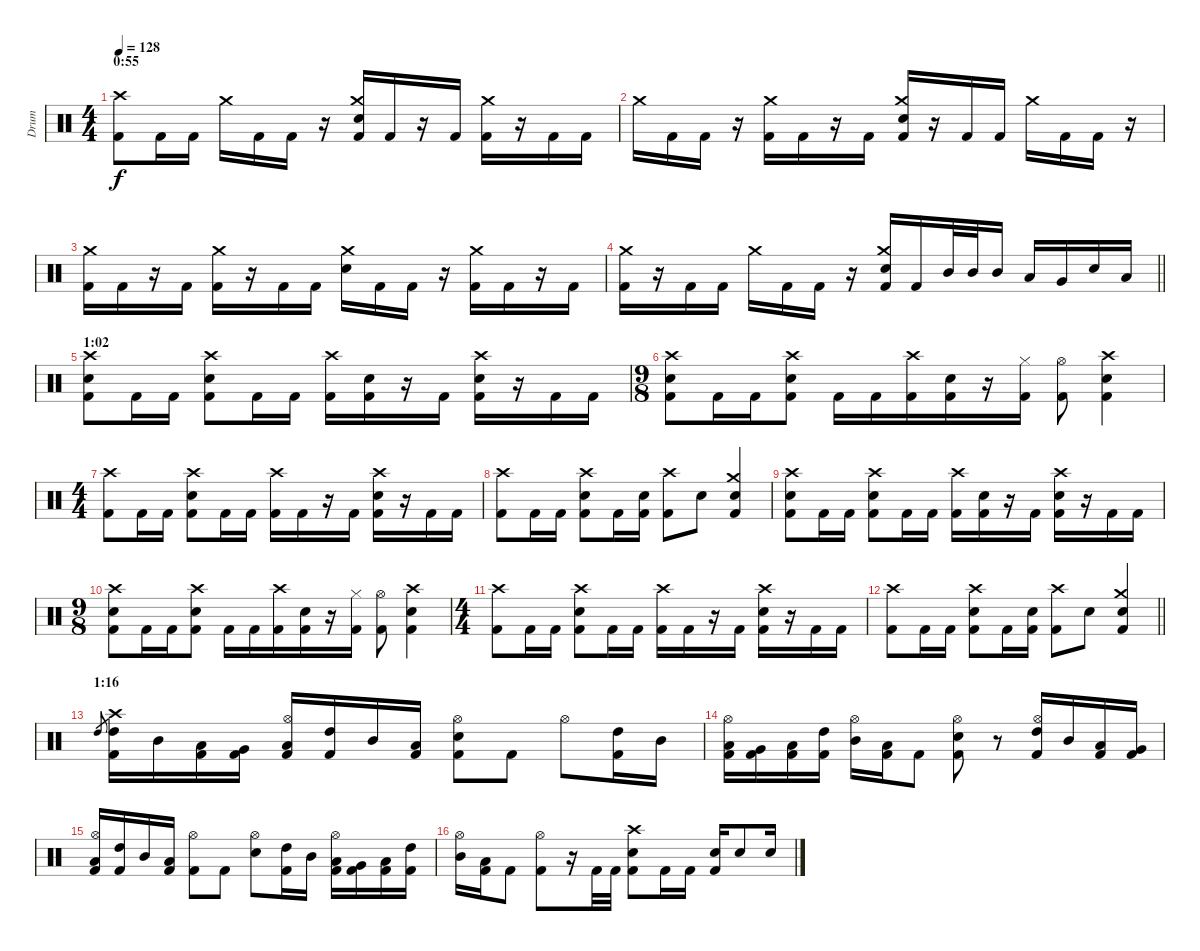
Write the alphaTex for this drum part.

\track ("Drum" "Drum") {instrument percussion}
\staff {score}
\articulation defaults
\ts (4 4)
\section ("" "0:55")
\tempo 128
\clef neutral
\ks c
("Crash high (hit)" "Kick (hit) 2").8{dy f} "Kick (hit) 2".16 "Kick (hit) 2".16 "Crash medium (hit)".16 "Kick (hit) 2".16 "Kick (hit) 2".16 r.16 ("Crash medium (hit)" "Electric Snare (hit)" "Kick (hit) 2").16 "Kick (hit) 2".16 r.16 "Kick (hit) 2".16 ("Crash medium (hit)" "Kick (hit) 2").16 r.16 "Kick (hit) 2".16 "Kick (hit) 2".16 |
"Crash medium (hit)".16 "Kick (hit) 2".16 "Kick (hit) 2".16 r.16 ("Crash medium (hit)" "Kick (hit) 2").16 "Kick (hit) 2".16 r.16 "Kick (hit) 2".16 ("Crash medium (hit)" "Electric Snare (hit)" "Kick (hit) 2").16 r.16 "Kick (hit) 2".16 "Kick (hit) 2".16 "Crash medium (hit)".16 "Kick (hit) 2".16 "Kick (hit) 2".16 r.16 |
("Crash medium (hit)" "Kick (hit) 2").16 "Kick (hit) 2".16 r.16 "Kick (hit) 2".16 ("Crash medium (hit)" "Kick (hit) 2").16 r.16 "Kick (hit) 2".16 "Kick (hit) 2".16 ("Crash medium (hit)" "Electric Snare (hit)").16 "Kick (hit) 2".16 "Kick (hit) 2".16 r.16 ("Crash medium (hit)" "Kick (hit) 2").16 "Kick (hit) 2".16 r.16 "Kick (hit) 2".16 |
\barLineRight lightlight
("Crash medium (hit)" "Kick (hit) 2").16 r.16 "Kick (hit) 2".16 "Kick (hit) 2".16 "Crash medium (hit)".16 "Kick (hit) 2".16 "Kick (hit) 2".16 r.16 ("Crash medium (hit)" "Electric Snare (hit)" "Kick (hit) 2").16 "Kick (hit) 2".16 "Mid Tom (hit)".32 "Mid Tom (hit)".32 "Mid Tom (hit)".16 "Low Tom (hit)".16 "Very Low Tom (hit)".16 "Electric Snare (hit)".16 "Low Tom (hit)".16 |
\section ("" "1:02")
("Crash high (hit)" "Electric Snare (hit)" "Kick (hit) 2").8 "Kick (hit) 2".16 "Kick (hit) 2".16 ("Crash high (hit)" "Electric Snare (hit)" "Kick (hit) 2").8 "Kick (hit) 2".16 "Kick (hit) 2".16 ("Crash high (hit)" "Kick (hit) 2").16 ("Electric Snare (hit)" "Kick (hit) 2").16 r.16 "Kick (hit) 2".16 ("Crash high (hit)" "Electric Snare (hit)" "Kick (hit) 2").16 r.16 "Kick (hit) 2".16 "Kick (hit) 2".16 |
\ts (9 8)
("Crash high (hit)" "Electric Snare (hit)" "Kick (hit) 2").8 "Kick (hit) 2".16 "Kick (hit) 2".16 ("Crash high (hit)" "Electric Snare (hit)" "Kick (hit) 2").8 "Kick (hit) 2".16 "Kick (hit) 2".16 ("Crash high (hit)" "Kick (hit) 2").16 ("Electric Snare (hit)" "Kick (hit) 2").16 r.16 ("Hi-Hat (closed)" "Kick (hit) 2").16 ("Hi-Hat (open)" "Kick (hit) 2").8 ("Crash high (hit)" "Electric Snare (hit)" "Kick (hit) 2").4 |
\ts (4 4)
("Crash high (hit)" "Kick (hit) 2").8 "Kick (hit) 2".16 "Kick (hit) 2".16 ("Crash high (hit)" "Electric Snare (hit)" "Kick (hit) 2").8 "Kick (hit) 2".16 "Kick (hit) 2".16 ("Crash high (hit)" "Kick (hit) 2").16 "Kick (hit) 2".16 r.16 "Kick (hit) 2".16 ("Crash high (hit)" "Electric Snare (hit)" "Kick (hit) 2").16 r.16 "Kick (hit) 2".16 "Kick (hit) 2".16 |
("Crash high (hit)" "Kick (hit) 2").8 "Kick (hit) 2".16 "Kick (hit) 2".16 ("Crash high (hit)" "Electric Snare (hit)" "Kick (hit) 2").8 "Kick (hit) 2".16 ("Electric Snare (hit)" "Kick (hit) 2").16 ("Crash high (hit)" "Kick (hit) 2").8 "Electric Snare (hit)".8 ("Crash medium (hit)" "Electric Snare (hit)" "Kick (hit) 2").4 |
("Crash high (hit)" "Electric Snare (hit)" "Kick (hit) 2").8 "Kick (hit) 2".16 "Kick (hit) 2".16 ("Crash high (hit)" "Electric Snare (hit)" "Kick (hit) 2").8 "Kick (hit) 2".16 "Kick (hit) 2".16 ("Crash high (hit)" "Kick (hit) 2").16 ("Electric Snare (hit)" "Kick (hit) 2").16 r.16 "Kick (hit) 2".16 ("Crash high (hit)" "Electric Snare (hit)" "Kick (hit) 2").16 r.16 "Kick (hit) 2".16 "Kick (hit) 2".16 |
\ts (9 8)
("Crash high (hit)" "Electric Snare (hit)" "Kick (hit) 2").8 "Kick (hit) 2".16 "Kick (hit) 2".16 ("Crash high (hit)" "Electric Snare (hit)" "Kick (hit) 2").8 "Kick (hit) 2".16 "Kick (hit) 2".16 ("Crash high (hit)" "Kick (hit) 2").16 ("Electric Snare (hit)" "Kick (hit) 2").16 r.16 ("Hi-Hat (closed)" "Kick (hit) 2").16 ("Hi-Hat (open)" "Kick (hit) 2").8 ("Crash high (hit)" "Electric Snare (hit)" "Kick (hit) 2").4 |
\ts (4 4)
("Crash high (hit)" "Kick (hit) 2").8 "Kick (hit) 2".16 "Kick (hit) 2".16 ("Crash high (hit)" "Electric Snare (hit)" "Kick (hit) 2").8 "Kick (hit) 2".16 "Kick (hit) 2".16 ("Crash high (hit)" "Kick (hit) 2").16 "Kick (hit) 2".16 r.16 "Kick (hit) 2".16 ("Crash high (hit)" "Electric Snare (hit)" "Kick (hit) 2").16 r.16 "Kick (hit) 2".16 "Kick (hit) 2".16 |
\barLineRight lightlight
("Crash high (hit)" "Kick (hit) 2").8 "Kick (hit) 2".16 "Kick (hit) 2".16 ("Crash high (hit)" "Electric Snare (hit)" "Kick (hit) 2").8 "Kick (hit) 2".16 ("Electric Snare (hit)" "Kick (hit) 2").16 ("Crash high (hit)" "Kick (hit) 2").8 "Electric Snare (hit)".8 ("Crash medium (hit)" "Electric Snare (hit)" "Kick (hit) 2").4 |
\section ("" "1:16")
"High Tom (hit)".8{gr} ("Crash high (hit)" "High Tom (hit)" "Kick (hit) 2").16 "Mid Tom (hit)".16 ("Low Tom (hit)" "Kick (hit) 2").16 ("Very Low Tom (hit)" "Kick (hit) 2").16 ("Hi-Hat (open)" "Low Floor Tom (hit)" "Kick (hit) 2").16 ("High Tom (hit)" "Kick (hit) 2").16 "Mid Tom (hit)".16 ("Low Tom (hit)" "Kick (hit) 2").16 ("Hi-Hat (open)" "Electric Snare (hit)" "Kick (hit) 2").8 "Kick (hit) 2".8 "Hi-Hat (open)".8 ("High Tom (hit)" "Kick (hit) 2").16 "Mid Tom (hit)".16 |
("Hi-Hat (open)" "Low Tom (hit)" "Kick (hit) 2").16 ("Very Low Tom (hit)" "Kick (hit) 2").16 ("Low Floor Tom (hit)" "Kick (hit) 2").16 ("High Tom (hit)" "Kick (hit) 2").16 ("Hi-Hat (open)" "Mid Tom (hit)").16 ("Low Tom (hit)" "Kick (hit) 2").16 "Kick (hit) 2".8 ("Hi-Hat (open)" "Electric Snare (hit)" "Kick (hit) 2").8 r.8 ("Hi-Hat (open)" "High Tom (hit)" "Kick (hit) 2").16 "Mid Tom (hit)".16 ("Low Tom (hit)" "Kick (hit) 2").16 ("Very Low Tom (hit)" "Kick (hit) 2").16 |
("Hi-Hat (open)" "Low Floor Tom (hit)" "Kick (hit) 2").16 ("High Tom (hit)" "Kick (hit) 2").16 "Mid Tom (hit)".16 ("Low Tom (hit)" "Kick (hit) 2").16 ("Hi-Hat (open)" "Kick (hit) 2").8 "Kick (hit) 2".8 ("Hi-Hat (open)" "Electric Snare (hit)").8 ("High Tom (hit)" "Kick (hit) 2").16 "Mid Tom (hit)".16 ("Hi-Hat (open)" "Low Tom (hit)" "Kick (hit) 2").16 ("Very Low Tom (hit)" "Kick (hit) 2").16 ("Low Floor Tom (hit)" "Kick (hit) 2").16 ("High Tom (hit)" "Kick (hit) 2").16 |
("Hi-Hat (open)" "Mid Tom (hit)").16 ("Low Tom (hit)" "Kick (hit) 2").16 "Kick (hit) 2".8 ("Hi-Hat (open)" "Kick (hit) 2").8 r.16 "Kick (hit) 2".32 "Kick (hit) 2".32 ("Crash high (hit)" "Electric Snare (hit)" "Kick (hit) 2").8 "Kick (hit) 2".16 "Kick (hit) 2".16 ("Electric Snare (hit)" "Kick (hit) 2").16 "Electric Snare (hit)".8 "Electric Snare (hit)".16
